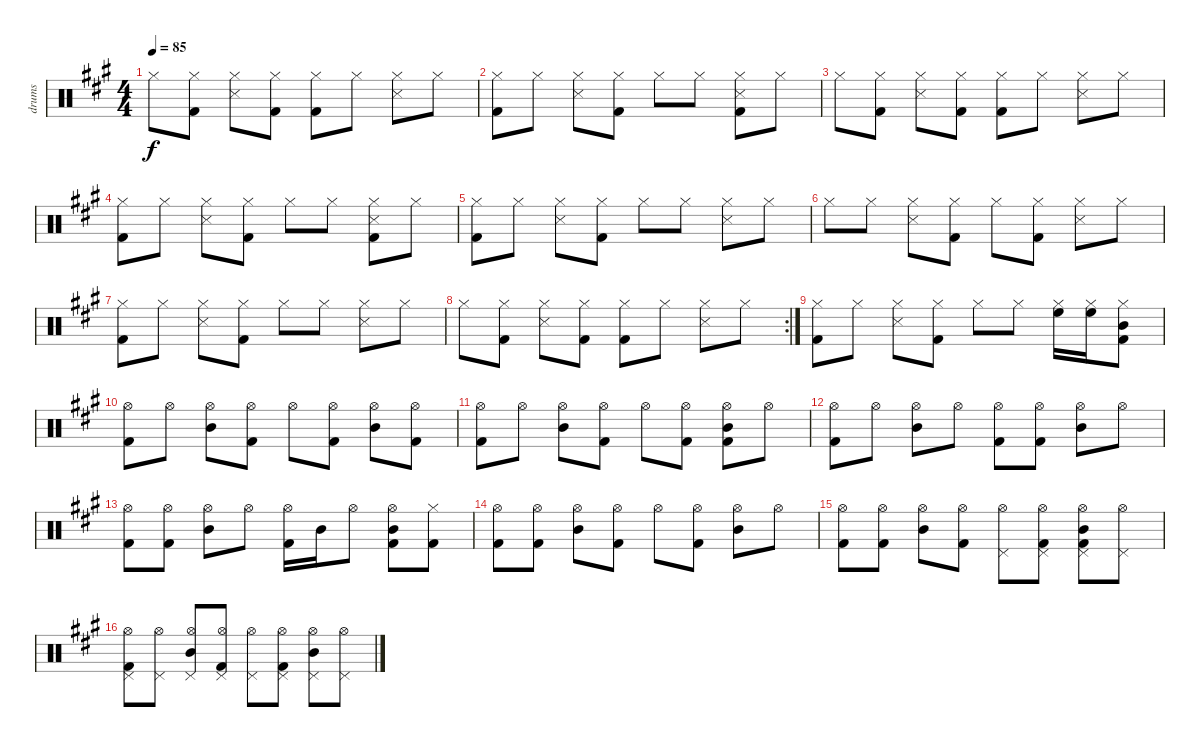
\track ("drums" "drums") {instrument percussion}
\staff {score}
\articulation defaults
\ts (4 4)
\tempo 85
\clef neutral
\ks a "Hi-Hat (closed)".8{dy f}
("Hi-Hat (closed)" "Kick (hit) 2").8 ("Hi-Hat (closed)" "Snare (side stick) 3").8 ("Hi-Hat (closed)" "Kick (hit) 2").8 ("Hi-Hat (closed)" "Kick (hit) 2").8 "Hi-Hat (closed)".8 ("Hi-Hat (closed)" "Snare (side stick) 3").8 "Hi-Hat (closed)".8 |
("Hi-Hat (closed)" "Kick (hit) 2").8 "Hi-Hat (closed)".8 ("Hi-Hat (closed)" "Snare (side stick) 3").8 ("Hi-Hat (closed)" "Kick (hit) 2").8 "Hi-Hat (closed)".8 "Hi-Hat (closed)".8 ("Hi-Hat (closed)" "Snare (side stick) 3" "Kick (hit) 2").8 "Hi-Hat (closed)".8 |
"Hi-Hat (closed)".8 ("Hi-Hat (closed)" "Kick (hit) 2").8 ("Hi-Hat (closed)" "Snare (side stick) 3").8 ("Hi-Hat (closed)" "Kick (hit) 2").8 ("Hi-Hat (closed)" "Kick (hit) 2").8 "Hi-Hat (closed)".8 ("Hi-Hat (closed)" "Snare (side stick) 3").8 "Hi-Hat (closed)".8 |
("Hi-Hat (closed)" "Kick (hit) 2").8 "Hi-Hat (closed)".8 ("Hi-Hat (closed)" "Snare (side stick) 3").8 ("Hi-Hat (closed)" "Kick (hit) 2").8 "Hi-Hat (closed)".8 "Hi-Hat (closed)".8 ("Hi-Hat (closed)" "Snare (side stick) 3" "Kick (hit) 2").8 "Hi-Hat (closed)".8 |
("Hi-Hat (closed)" "Kick (hit) 2").8 "Hi-Hat (closed)".8 ("Hi-Hat (closed)" "Snare (side stick) 3").8 ("Hi-Hat (closed)" "Kick (hit) 2").8 "Hi-Hat (closed)".8 "Hi-Hat (closed)".8 ("Hi-Hat (closed)" "Snare (side stick) 3").8 "Hi-Hat (closed)".8 |
"Hi-Hat (closed)".8 "Hi-Hat (closed)".8 ("Hi-Hat (closed)" "Snare (side stick) 3").8 ("Hi-Hat (closed)" "Kick (hit) 2").8 "Hi-Hat (closed)".8 ("Hi-Hat (closed)" "Kick (hit) 2").8 ("Hi-Hat (closed)" "Snare (side stick) 3").8 "Hi-Hat (closed)".8 |
("Hi-Hat (closed)" "Kick (hit) 2").8 "Hi-Hat (closed)".8 ("Hi-Hat (closed)" "Snare (side stick) 3").8 ("Hi-Hat (closed)" "Kick (hit) 2").8 "Hi-Hat (closed)".8 "Hi-Hat (closed)".8 ("Hi-Hat (closed)" "Snare (side stick) 3").8 "Hi-Hat (closed)".8 |
\rc 2 "Hi-Hat (closed)".8
("Hi-Hat (closed)" "Kick (hit) 2").8 ("Hi-Hat (closed)" "Snare (side stick) 3").8 ("Hi-Hat (closed)" "Kick (hit) 2").8 ("Hi-Hat (closed)" "Kick (hit) 2").8 "Hi-Hat (closed)".8 ("Hi-Hat (closed)" "Snare (side stick) 3").8 "Hi-Hat (closed)".8 |
("Hi-Hat (closed)" "Kick (hit) 2").8 "Hi-Hat (closed)".8 ("Hi-Hat (closed)" "Snare (side stick) 3").8 ("Hi-Hat (closed)" "Kick (hit) 2").8 "Hi-Hat (closed)".8 "Hi-Hat (closed)".8 ("Hi-Hat (closed)" "High Floor Tom (hit)").16 ("Hi-Hat (closed)" "High Floor Tom (hit)").16 ("Hi-Hat (closed)" "Mid Tom (hit)" "Kick (hit) 2").8 |
("Hi-Hat (open)" "Kick (hit) 2").8 "Hi-Hat (open)".8 ("Hi-Hat (open)" "Mid Tom (hit)").8 ("Hi-Hat (open)" "Kick (hit) 2").8 "Hi-Hat (open)".8 ("Hi-Hat (open)" "Kick (hit) 2").8 ("Hi-Hat (open)" "Mid Tom (hit)").8 ("Hi-Hat (open)" "Kick (hit) 2").8 |
("Hi-Hat (open)" "Kick (hit) 2").8 "Hi-Hat (open)".8 ("Hi-Hat (open)" "Mid Tom (hit)").8 ("Hi-Hat (open)" "Kick (hit) 2").8 "Hi-Hat (open)".8 ("Hi-Hat (open)" "Kick (hit) 2").8 ("Hi-Hat (open)" "Mid Tom (hit)" "Kick (hit) 2").8 "Hi-Hat (open)".8 |
("Hi-Hat (open)" "Kick (hit) 2").8 "Hi-Hat (open)".8 ("Hi-Hat (open)" "Mid Tom (hit)").8 "Hi-Hat (open)".8 ("Hi-Hat (open)" "Kick (hit) 2").8 ("Hi-Hat (open)" "Kick (hit) 2").8 ("Hi-Hat (open)" "Mid Tom (hit)").8 "Hi-Hat (open)".8 |
("Hi-Hat (open)" "Kick (hit) 2").8 ("Hi-Hat (open)" "Kick (hit) 2").8 ("Hi-Hat (open)" "Mid Tom (hit)").8 "Hi-Hat (open)".8 ("Hi-Hat (open)" "Kick (hit) 2").16 "Mid Tom (hit)".16 "Hi-Hat (open)".8 ("Hi-Hat (open)" "Mid Tom (hit)" "Kick (hit) 2").8 ("Hi-Hat (closed)" "Kick (hit) 2").8 |
("Hi-Hat (open)" "Kick (hit) 2").8 ("Hi-Hat (open)" "Kick (hit) 2").8 ("Hi-Hat (open)" "Mid Tom (hit)").8 ("Hi-Hat (open)" "Kick (hit) 2").8 "Hi-Hat (open)".8 ("Hi-Hat (open)" "Kick (hit) 2").8 ("Hi-Hat (open)" "Mid Tom (hit)").8 "Hi-Hat (open)".8 |
("Hi-Hat (open)" "Kick (hit) 2").8 ("Hi-Hat (open)" "Kick (hit) 2").8 ("Hi-Hat (open)" "Mid Tom (hit)").8 ("Hi-Hat (open)" "Kick (hit) 2").8 ("Hi-Hat (open)" "Pedal Hi-Hat (hit)").8 ("Hi-Hat (open)" "Pedal Hi-Hat (hit)" "Kick (hit) 2").8 ("Hi-Hat (open)" "Mid Tom (hit)" "Pedal Hi-Hat (hit)" "Kick (hit) 2").8 ("Hi-Hat (open)" "Pedal Hi-Hat (hit)").8 |
("Hi-Hat (open)" "Pedal Hi-Hat (hit)" "Kick (hit) 2").8 ("Hi-Hat (open)" "Pedal Hi-Hat (hit)").8 ("Hi-Hat (open)" "Mid Tom (hit)" "Pedal Hi-Hat (hit)").8 ("Hi-Hat (open)" "Pedal Hi-Hat (hit)" "Kick (hit) 2").8 ("Hi-Hat (open)" "Pedal Hi-Hat (hit)").8 ("Hi-Hat (open)" "Pedal Hi-Hat (hit)" "Kick (hit) 2").8 ("Hi-Hat (open)" "Mid Tom (hit)" "Pedal Hi-Hat (hit)").8 ("Hi-Hat (open)" "Pedal Hi-Hat (hit)").8
